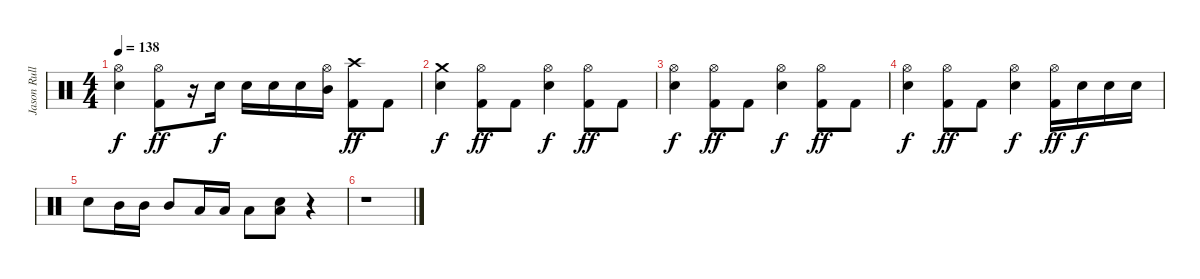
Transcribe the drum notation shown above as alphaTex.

\track ("Jason Rullo" "Jason Rull") {instrument percussion}
\staff {score}
\articulation defaults
\ts (4 4)
\tempo 138
\clef neutral
\ks c
("Electric Snare (hit)" "Hi-Hat (open)").4{dy f} ("Kick (hit) 2" "Hi-Hat (open)").8{dy ff} r.16 "Electric Snare (hit)".16{dy f} "Electric Snare (hit)".16 "Electric Snare (hit)".16 "Electric Snare (hit)".16 ("Mid Tom (hit)" "Hi-Hat (open)").16 ("Kick (hit) 2" "Crash high (hit)").8{dy ff} "Kick (hit) 2".8 |
("Electric Snare (hit)" "Crash medium (hit)").4{dy f} ("Kick (hit) 2" "Hi-Hat (open)").8{dy ff} "Kick (hit) 2".8 ("Electric Snare (hit)" "Hi-Hat (open)").4{dy f} ("Kick (hit) 2" "Hi-Hat (open)").8{dy ff} "Kick (hit) 2".8 |
("Electric Snare (hit)" "Hi-Hat (open)").4{dy f} ("Kick (hit) 2" "Hi-Hat (open)").8{dy ff} "Kick (hit) 2".8 ("Electric Snare (hit)" "Hi-Hat (open)").4{dy f} ("Kick (hit) 2" "Hi-Hat (open)").8{dy ff} "Kick (hit) 2".8 |
("Electric Snare (hit)" "Hi-Hat (open)").4{dy f} ("Kick (hit) 2" "Hi-Hat (open)").8{dy ff} "Kick (hit) 2".8 ("Electric Snare (hit)" "Hi-Hat (open)").4{dy f} ("Kick (hit) 2" "Hi-Hat (open)").16{dy ff} "Electric Snare (hit)".16{dy f} "Electric Snare (hit)".16 "Electric Snare (hit)".16 |
"Electric Snare (hit)".8 "Mid Tom (hit)".16 "Mid Tom (hit)".16 "Mid Tom (hit)".8 "Low Tom (hit)".16 "Low Tom (hit)".16 "Low Tom (hit)".8 ("Electric Snare (hit)" "Low Tom (hit)").8 r.4 |
r.1
